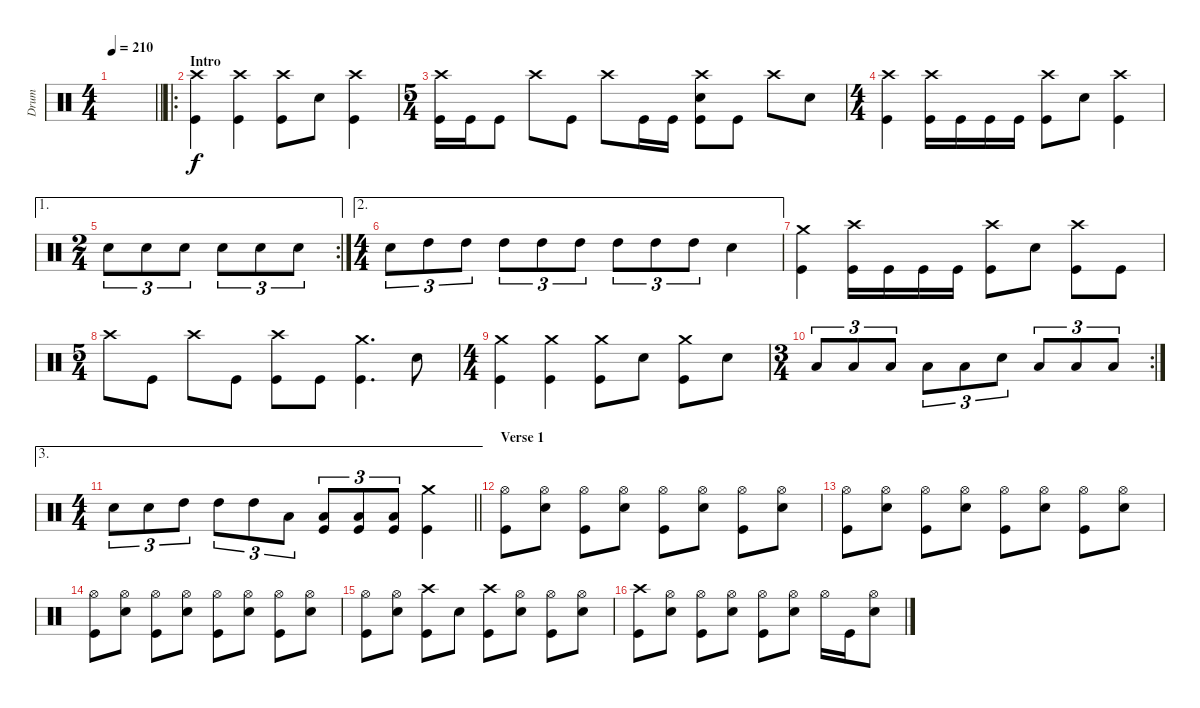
\track ("Drum" "Drum") {instrument percussion}
\staff {score}
\articulation defaults
\ts (4 4)
\tempo 210
\clef neutral
\barLineRight lightlight
\ks c
|
\ro
\section ("" "Intro")
("Crash high (hit)" "Kick (hit)").4 ("Crash high (hit)" "Kick (hit)").4 ("Crash high (hit)" "Kick (hit)").8 "Snare (hit) 2".8 ("Crash high (hit)" "Kick (hit)").4 |
\ts (5 4)
("Crash high (hit)" "Kick (hit)").16 "Kick (hit)".16 "Kick (hit)".8 "Crash high (hit)".8 "Kick (hit)".8 "Crash high (hit)".8 "Kick (hit)".16 "Kick (hit)".16 ("Crash high (hit)" "Snare (hit) 2" "Kick (hit)").8 "Kick (hit)".8 "Crash high (hit)".8 "Snare (hit) 2".8 |
\ts (4 4)
("Crash high (hit)" "Kick (hit)").4 ("Crash high (hit)" "Kick (hit)").16 "Kick (hit)".16 "Kick (hit)".16 "Kick (hit)".16 ("Crash high (hit)" "Kick (hit)").8 "Snare (hit) 2".8 ("Crash high (hit)" "Kick (hit)").4 |
\ae 1
\rc 2
\ts (2 4)
"Snare (hit) 2".8{tu (3 2)} "Snare (hit) 2".8{tu (3 2)} "Snare (hit) 2".8{tu (3 2)} "Snare (hit) 2".8{tu (3 2)} "Snare (hit) 2".8{tu (3 2)} "Snare (hit) 2".8{tu (3 2)} |
\ae 2
\ts (4 4)
"Snare (hit) 2".8{tu (3 2)} "High Tom (hit)".8{tu (3 2)} "High Tom (hit)".8{tu (3 2)} "High Tom (hit)".8{tu (3 2)} "High Tom (hit)".8{tu (3 2)} "High Tom (hit)".8{tu (3 2)} "High Tom (hit)".8{tu (3 2)} "High Tom (hit)".8{tu (3 2)} "High Tom (hit)".8{tu (3 2)} "Snare (hit) 2".4 |
("Crash medium (hit)" "Kick (hit)").4 ("Crash high (hit)" "Kick (hit)").16 "Kick (hit)".16 "Kick (hit)".16 "Kick (hit)".16 ("Crash high (hit)" "Kick (hit)").8 "Snare (hit) 2".8 ("Crash high (hit)" "Kick (hit)").8 "Kick (hit)".8 |
\ts (5 4)
"Crash high (hit)".8 "Kick (hit)".8 "Crash high (hit)".8 "Kick (hit)".8 ("Crash high (hit)" "Kick (hit)").8 "Kick (hit)".8 ("Crash medium (hit)" "Kick (hit)").4{d} "Snare (hit) 2".8 |
\ts (4 4)
("Crash medium (hit)" "Kick (hit)").4 ("Crash medium (hit)" "Kick (hit)").4 ("Crash medium (hit)" "Kick (hit)").8 "Snare (hit) 2".8 ("Crash medium (hit)" "Kick (hit)").8 "Snare (hit) 2".8 |
\rc 2
\ts (3 4)
"Low Tom (hit)".8{tu (3 2)} "Low Tom (hit)".8{tu (3 2)} "Low Tom (hit)".8{tu (3 2)} "Low Tom (hit)".8{tu (3 2)} "Low Tom (hit)".8{tu (3 2)} "Snare (hit) 2".8{tu (3 2)} "Low Tom (hit)".8{tu (3 2)} "Low Tom (hit)".8{tu (3 2)} "Low Tom (hit)".8{tu (3 2)} |
\ae 3
\ts (4 4)
\barLineRight lightlight "Snare (hit) 2".8{tu (3 2)} "Snare (hit) 2".8{tu (3 2)} "High Tom (hit)".8{tu (3 2)} "High Tom (hit)".8{tu (3 2)} "High Tom (hit)".8{tu (3 2)} "Low Tom (hit)".8{tu (3 2)}
("Low Tom (hit)" "Kick (hit)").8{tu (3 2)} ("Low Tom (hit)" "Kick (hit)").8{tu (3 2)} ("Low Tom (hit)" "Kick (hit)").8{tu (3 2)} ("Crash medium (hit)" "Kick (hit)").4 |
\section ("" "Verse 1")
("Hi-Hat (open)" "Kick (hit)").8 ("Hi-Hat (open)" "Snare (hit) 2").8 ("Hi-Hat (open)" "Kick (hit)").8 ("Hi-Hat (open)" "Snare (hit) 2").8 ("Hi-Hat (open)" "Kick (hit)").8 ("Hi-Hat (open)" "Snare (hit) 2").8 ("Hi-Hat (open)" "Kick (hit)").8 ("Hi-Hat (open)" "Snare (hit) 2").8 |
("Hi-Hat (open)" "Kick (hit)").8 ("Hi-Hat (open)" "Snare (hit) 2").8 ("Hi-Hat (open)" "Kick (hit)").8 ("Hi-Hat (open)" "Snare (hit) 2").8 ("Hi-Hat (open)" "Kick (hit)").8 ("Hi-Hat (open)" "Snare (hit) 2").8 ("Hi-Hat (open)" "Kick (hit)").8 ("Hi-Hat (open)" "Snare (hit) 2").8 |
("Hi-Hat (open)" "Kick (hit)").8 ("Hi-Hat (open)" "Snare (hit) 2").8 ("Hi-Hat (open)" "Kick (hit)").8 ("Hi-Hat (open)" "Snare (hit) 2").8 ("Hi-Hat (open)" "Kick (hit)").8 ("Hi-Hat (open)" "Snare (hit) 2").8 ("Hi-Hat (open)" "Kick (hit)").8 ("Hi-Hat (open)" "Snare (hit) 2").8 |
("Hi-Hat (open)" "Kick (hit)").8 ("Hi-Hat (open)" "Snare (hit) 2").8 ("Crash high (hit)" "Kick (hit)").8 "Snare (hit) 2".8 ("Crash high (hit)" "Kick (hit)").8 ("Hi-Hat (open)" "Snare (hit) 2").8 ("Hi-Hat (open)" "Kick (hit)").8 ("Hi-Hat (open)" "Snare (hit) 2").8 |
("Crash high (hit)" "Kick (hit)").8 ("Hi-Hat (open)" "Snare (hit) 2").8 ("Hi-Hat (open)" "Kick (hit)").8 ("Hi-Hat (open)" "Snare (hit) 2").8 ("Hi-Hat (open)" "Kick (hit)").8 ("Hi-Hat (open)" "Snare (hit) 2").8 "Hi-Hat (open)".16 "Kick (hit)".16 ("Hi-Hat (open)" "Snare (hit) 2").8
